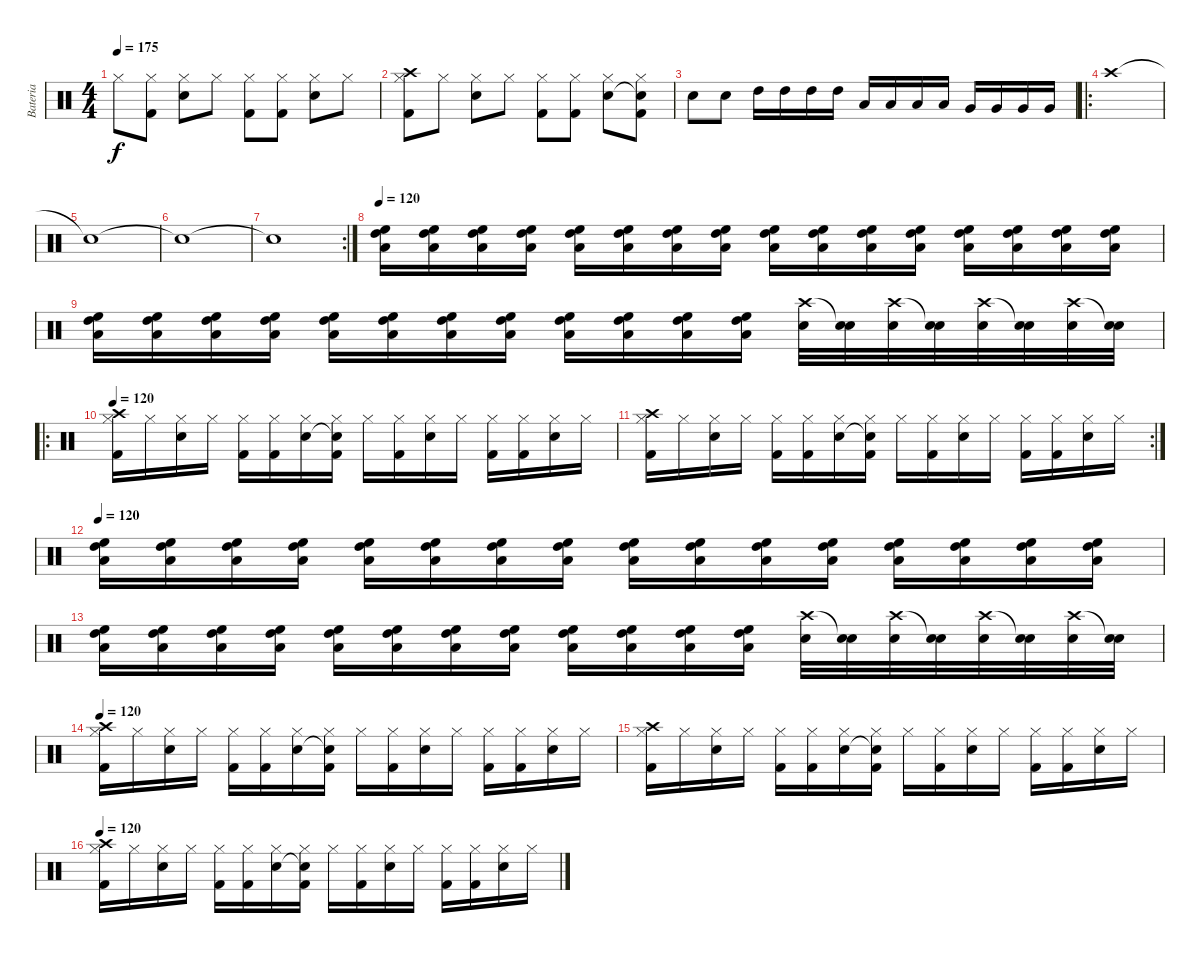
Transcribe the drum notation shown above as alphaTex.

\track ("Bateria" "Bateria") {instrument percussion}
\staff {score}
\articulation defaults
\ts (4 4)
\tempo 175
\clef neutral
\ks c "Hi-Hat (closed)".8{dy f}
("Hi-Hat (closed)" "Kick (hit) 2").8 ("Hi-Hat (closed)" "Snare (hit) 2").8 "Hi-Hat (closed)".8 ("Hi-Hat (closed)" "Kick (hit) 2").8 ("Hi-Hat (closed)" "Kick (hit) 2").8 ("Hi-Hat (closed)" "Snare (hit) 2").8 "Hi-Hat (closed)".8 |
("Hi-Hat (closed)" "Crash high (hit)" "Kick (hit) 2").8 "Hi-Hat (closed)".8 ("Hi-Hat (closed)" "Snare (hit) 2").8 "Hi-Hat (closed)".8 ("Hi-Hat (closed)" "Kick (hit) 2").8 ("Hi-Hat (closed)" "Kick (hit) 2").8 ("Hi-Hat (closed)" "Snare (hit) 2").8 ("Hi-Hat (closed)" "Snare (hit)"{t} "Kick (hit) 2").8 |
"Snare (hit) 2".8 "Snare (hit) 2".8 "High Tom (hit)".16 "High Tom (hit)".16 "High Tom (hit)".16 "High Tom (hit)".16 "Low Tom (hit)".16 "Low Tom (hit)".16 "Low Tom (hit)".16 "Low Tom (hit)".16 "Very Low Tom (hit)".16 "Very Low Tom (hit)".16 "Very Low Tom (hit)".16 "Very Low Tom (hit)".16 |
\ro "Crash high (hit)".1
|
"Snare (hit)"{t}.1 |
"Snare (hit)"{t}.1 |
\rc 2 "Snare (hit)"{t}.1
|
\tempo 120
("Low Tom (hit)" "High Tom (hit)" "High Floor Tom (hit)").16{volume 8} ("Low Tom (hit)" "High Tom (hit)" "High Floor Tom (hit)").16 ("Low Tom (hit)" "High Tom (hit)" "High Floor Tom (hit)").16 ("Low Tom (hit)" "High Tom (hit)" "High Floor Tom (hit)").16 ("Low Tom (hit)" "High Tom (hit)" "High Floor Tom (hit)").16{volume 9} ("Low Tom (hit)" "High Tom (hit)" "High Floor Tom (hit)").16 ("Low Tom (hit)" "High Tom (hit)" "High Floor Tom (hit)").16 ("Low Tom (hit)" "High Tom (hit)" "High Floor Tom (hit)").16 ("Low Tom (hit)" "High Tom (hit)" "High Floor Tom (hit)").16{volume 10} ("Low Tom (hit)" "High Tom (hit)" "High Floor Tom (hit)").16 ("Low Tom (hit)" "High Tom (hit)" "High Floor Tom (hit)").16 ("Low Tom (hit)" "High Tom (hit)" "High Floor Tom (hit)").16 ("Low Tom (hit)" "High Tom (hit)" "High Floor Tom (hit)").16{volume 11} ("Low Tom (hit)" "High Tom (hit)" "High Floor Tom (hit)").16 ("Low Tom (hit)" "High Tom (hit)" "High Floor Tom (hit)").16 ("Low Tom (hit)" "High Tom (hit)" "High Floor Tom (hit)").16 |
("Low Tom (hit)" "High Tom (hit)" "High Floor Tom (hit)").16{volume 12} ("Low Tom (hit)" "High Tom (hit)" "High Floor Tom (hit)").16 ("Low Tom (hit)" "High Tom (hit)" "High Floor Tom (hit)").16 ("Low Tom (hit)" "High Tom (hit)" "High Floor Tom (hit)").16 ("Low Tom (hit)" "High Tom (hit)" "High Floor Tom (hit)").16{volume 13} ("Low Tom (hit)" "High Tom (hit)" "High Floor Tom (hit)").16 ("Low Tom (hit)" "High Tom (hit)" "High Floor Tom (hit)").16 ("Low Tom (hit)" "High Tom (hit)" "High Floor Tom (hit)").16 ("Low Tom (hit)" "High Tom (hit)" "High Floor Tom (hit)").16{volume 14} ("Low Tom (hit)" "High Tom (hit)" "High Floor Tom (hit)").16 ("Low Tom (hit)" "High Tom (hit)" "High Floor Tom (hit)").16 ("Low Tom (hit)" "High Tom (hit)" "High Floor Tom (hit)").16 ("Crash high (hit)" "Snare (hit) 2").32{volume 15} ("Snare (hit)"{t} "Snare (hit) 2").32 ("Crash high (hit)" "Snare (hit) 2").32 ("Snare (hit)"{t} "Snare (hit) 2").32 ("Crash high (hit)" "Snare (hit) 2").32 ("Snare (hit)"{t} "Snare (hit) 2").32 ("Crash high (hit)" "Snare (hit) 2").32 ("Snare (hit)"{t} "Snare (hit) 2").32 |
\ro
\tempo 120
("Hi-Hat (closed)" "Crash high (hit)" "Kick (hit) 2").16 "Hi-Hat (closed)".16 ("Hi-Hat (closed)" "Snare (hit) 2").16 "Hi-Hat (closed)".16 ("Hi-Hat (closed)" "Kick (hit) 2").16 ("Hi-Hat (closed)" "Kick (hit) 2").16 ("Hi-Hat (closed)" "Snare (hit) 2").16 ("Hi-Hat (closed)" "Snare (hit)"{t} "Kick (hit) 2").16 "Hi-Hat (closed)".16 ("Hi-Hat (closed)" "Kick (hit) 2").16 ("Hi-Hat (closed)" "Snare (hit) 2").16 "Hi-Hat (closed)".16 ("Hi-Hat (closed)" "Kick (hit) 2").16 ("Hi-Hat (closed)" "Kick (hit) 2").16 ("Hi-Hat (closed)" "Snare (hit) 2").16 "Hi-Hat (closed)".16 |
\rc 2
("Hi-Hat (closed)" "Crash high (hit)" "Kick (hit) 2").16 "Hi-Hat (closed)".16 ("Hi-Hat (closed)" "Snare (hit) 2").16 "Hi-Hat (closed)".16 ("Hi-Hat (closed)" "Kick (hit) 2").16 ("Hi-Hat (closed)" "Kick (hit) 2").16 ("Hi-Hat (closed)" "Snare (hit) 2").16 ("Hi-Hat (closed)" "Snare (hit)"{t} "Kick (hit) 2").16 "Hi-Hat (closed)".16 ("Hi-Hat (closed)" "Kick (hit) 2").16 ("Hi-Hat (closed)" "Snare (hit) 2").16 "Hi-Hat (closed)".16 ("Hi-Hat (closed)" "Kick (hit) 2").16 ("Hi-Hat (closed)" "Kick (hit) 2").16 ("Hi-Hat (closed)" "Snare (hit) 2").16 "Hi-Hat (closed)".16 |
\tempo 120
("Low Tom (hit)" "High Tom (hit)" "High Floor Tom (hit)").16{volume 8} ("Low Tom (hit)" "High Tom (hit)" "High Floor Tom (hit)").16 ("Low Tom (hit)" "High Tom (hit)" "High Floor Tom (hit)").16 ("Low Tom (hit)" "High Tom (hit)" "High Floor Tom (hit)").16 ("Low Tom (hit)" "High Tom (hit)" "High Floor Tom (hit)").16{volume 9} ("Low Tom (hit)" "High Tom (hit)" "High Floor Tom (hit)").16 ("Low Tom (hit)" "High Tom (hit)" "High Floor Tom (hit)").16 ("Low Tom (hit)" "High Tom (hit)" "High Floor Tom (hit)").16 ("Low Tom (hit)" "High Tom (hit)" "High Floor Tom (hit)").16{volume 10} ("Low Tom (hit)" "High Tom (hit)" "High Floor Tom (hit)").16 ("Low Tom (hit)" "High Tom (hit)" "High Floor Tom (hit)").16 ("Low Tom (hit)" "High Tom (hit)" "High Floor Tom (hit)").16 ("Low Tom (hit)" "High Tom (hit)" "High Floor Tom (hit)").16{volume 11} ("Low Tom (hit)" "High Tom (hit)" "High Floor Tom (hit)").16 ("Low Tom (hit)" "High Tom (hit)" "High Floor Tom (hit)").16 ("Low Tom (hit)" "High Tom (hit)" "High Floor Tom (hit)").16 |
("Low Tom (hit)" "High Tom (hit)" "High Floor Tom (hit)").16{volume 12} ("Low Tom (hit)" "High Tom (hit)" "High Floor Tom (hit)").16 ("Low Tom (hit)" "High Tom (hit)" "High Floor Tom (hit)").16 ("Low Tom (hit)" "High Tom (hit)" "High Floor Tom (hit)").16 ("Low Tom (hit)" "High Tom (hit)" "High Floor Tom (hit)").16{volume 13} ("Low Tom (hit)" "High Tom (hit)" "High Floor Tom (hit)").16 ("Low Tom (hit)" "High Tom (hit)" "High Floor Tom (hit)").16 ("Low Tom (hit)" "High Tom (hit)" "High Floor Tom (hit)").16 ("Low Tom (hit)" "High Tom (hit)" "High Floor Tom (hit)").16{volume 14} ("Low Tom (hit)" "High Tom (hit)" "High Floor Tom (hit)").16 ("Low Tom (hit)" "High Tom (hit)" "High Floor Tom (hit)").16 ("Low Tom (hit)" "High Tom (hit)" "High Floor Tom (hit)").16 ("Crash high (hit)" "Snare (hit) 2").32{volume 15} ("Snare (hit)"{t} "Snare (hit) 2").32 ("Crash high (hit)" "Snare (hit) 2").32 ("Snare (hit)"{t} "Snare (hit) 2").32 ("Crash high (hit)" "Snare (hit) 2").32 ("Snare (hit)"{t} "Snare (hit) 2").32 ("Crash high (hit)" "Snare (hit) 2").32 ("Snare (hit)"{t} "Snare (hit) 2").32 |
\tempo 120
("Hi-Hat (closed)" "Crash high (hit)" "Kick (hit) 2").16 "Hi-Hat (closed)".16 ("Hi-Hat (closed)" "Snare (hit) 2").16 "Hi-Hat (closed)".16 ("Hi-Hat (closed)" "Kick (hit) 2").16 ("Hi-Hat (closed)" "Kick (hit) 2").16 ("Hi-Hat (closed)" "Snare (hit) 2").16 ("Hi-Hat (closed)" "Snare (hit)"{t} "Kick (hit) 2").16 "Hi-Hat (closed)".16 ("Hi-Hat (closed)" "Kick (hit) 2").16 ("Hi-Hat (closed)" "Snare (hit) 2").16 "Hi-Hat (closed)".16 ("Hi-Hat (closed)" "Kick (hit) 2").16 ("Hi-Hat (closed)" "Kick (hit) 2").16 ("Hi-Hat (closed)" "Snare (hit) 2").16 "Hi-Hat (closed)".16 |
("Hi-Hat (closed)" "Crash high (hit)" "Kick (hit) 2").16 "Hi-Hat (closed)".16 ("Hi-Hat (closed)" "Snare (hit) 2").16 "Hi-Hat (closed)".16 ("Hi-Hat (closed)" "Kick (hit) 2").16 ("Hi-Hat (closed)" "Kick (hit) 2").16 ("Hi-Hat (closed)" "Snare (hit) 2").16 ("Hi-Hat (closed)" "Snare (hit)"{t} "Kick (hit) 2").16 "Hi-Hat (closed)".16 ("Hi-Hat (closed)" "Kick (hit) 2").16 ("Hi-Hat (closed)" "Snare (hit) 2").16 "Hi-Hat (closed)".16 ("Hi-Hat (closed)" "Kick (hit) 2").16 ("Hi-Hat (closed)" "Kick (hit) 2").16 ("Hi-Hat (closed)" "Snare (hit) 2").16 "Hi-Hat (closed)".16 |
\tempo 120
("Hi-Hat (closed)" "Crash high (hit)" "Kick (hit) 2").16 "Hi-Hat (closed)".16 ("Hi-Hat (closed)" "Snare (hit) 2").16 "Hi-Hat (closed)".16 ("Hi-Hat (closed)" "Kick (hit) 2").16 ("Hi-Hat (closed)" "Kick (hit) 2").16 ("Hi-Hat (closed)" "Snare (hit) 2").16 ("Hi-Hat (closed)" "Snare (hit)"{t} "Kick (hit) 2").16 "Hi-Hat (closed)".16 ("Hi-Hat (closed)" "Kick (hit) 2").16 ("Hi-Hat (closed)" "Snare (hit) 2").16 "Hi-Hat (closed)".16 ("Hi-Hat (closed)" "Kick (hit) 2").16 ("Hi-Hat (closed)" "Kick (hit) 2").16 ("Hi-Hat (closed)" "Snare (hit) 2").16 "Hi-Hat (closed)".16
